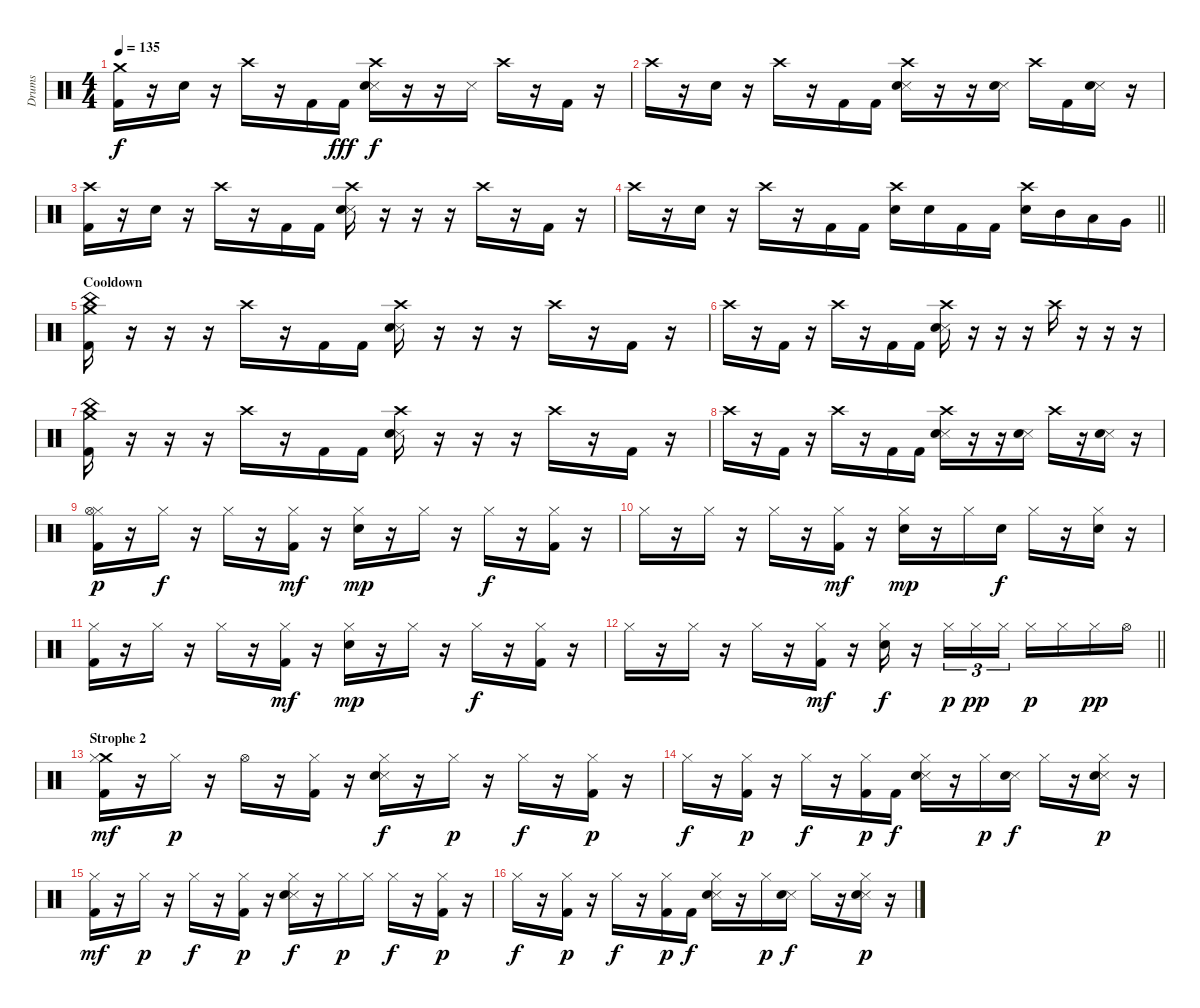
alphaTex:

\track ("Drums" "Drums") {instrument percussion}
\staff {score}
\articulation defaults
\ts (4 4)
\tempo 135
\clef neutral
\ks c
("Crash medium (hit)" "Kick (hit) 2").16{dy f} r.16 "Electric Snare (hit)".16 r.16 "Crash high (hit)".16 r.16 "Kick (hit) 2".16 "Kick (hit) 2".16{dy fff} ("Crash high (hit)" "Snare (side stick) 3" "Electric Snare (hit)").16{dy f} r.16 r.16 "Snare (side stick) 3".16 "Crash high (hit)".16 r.16 "Kick (hit) 2".16 r.16 |
"Crash high (hit)".16 r.16 "Electric Snare (hit)".16 r.16 "Crash high (hit)".16 r.16 "Kick (hit) 2".16 "Kick (hit) 2".16 ("Crash high (hit)" "Snare (side stick) 3" "Electric Snare (hit)").16 r.16 r.16 ("Snare (side stick) 3" "Electric Snare (hit)").16 "Crash high (hit)".16 "Kick (hit) 2".16 ("Snare (side stick) 3" "Electric Snare (hit)").16 r.16 |
("Kick (hit) 2" "Crash high (hit)").16 r.16 "Electric Snare (hit)".16 r.16 "Crash high (hit)".16 r.16 "Kick (hit) 2".16 "Kick (hit) 2".16 ("Snare (side stick) 3" "Electric Snare (hit)" "Crash high (hit)").16 r.16 r.16 r.16 "Crash high (hit)".16 r.16 "Kick (hit) 2".16 r.16 |
\barLineRight lightlight "Crash high (hit)".16
r.16 "Electric Snare (hit)".16 r.16 "Crash high (hit)".16 r.16 "Kick (hit) 2".16 "Kick (hit) 2".16 ("Electric Snare (hit)" "Crash high (hit)").16 "Electric Snare (hit)".16 "Kick (hit) 2".16 "Kick (hit) 2".16 ("Electric Snare (hit)" "Crash high (hit)").16 "Mid Tom (hit)".16 "Low Tom (hit)".16 "Very Low Tom (hit)".16 |
\section ("" "Cooldown")
("Crash medium (hit)" "China (hit)" "Kick (hit) 2").16 r.16 r.16 r.16 "Crash high (hit)".16 r.16 "Kick (hit) 2".16 "Kick (hit) 2".16 ("Crash high (hit)" "Snare (side stick) 3" "Electric Snare (hit)").16 r.16 r.16 r.16 "Crash high (hit)".16 r.16 "Kick (hit) 2".16 r.16 |
"Crash high (hit)".16 r.16 "Kick (hit) 2".16 r.16 "Crash high (hit)".16 r.16 "Kick (hit) 2".16 "Kick (hit) 2".16 ("Crash high (hit)" "Snare (side stick) 3" "Electric Snare (hit)").16 r.16 r.16 r.16 "Crash high (hit)".16 r.16 r.16 r.16 |
("Crash medium (hit)" "China (hit)" "Kick (hit) 2").16 r.16 r.16 r.16 "Crash high (hit)".16 r.16 "Kick (hit) 2".16 "Kick (hit) 2".16 ("Crash high (hit)" "Snare (side stick) 3" "Electric Snare (hit)").16 r.16 r.16 r.16 "Crash high (hit)".16 r.16 "Kick (hit) 2".16 r.16 |
"Crash high (hit)".16 r.16 "Kick (hit) 2".16 r.16 "Crash high (hit)".16 r.16 "Kick (hit) 2".16 "Kick (hit) 2".16 ("Crash high (hit)" "Snare (side stick) 3" "Electric Snare (hit)").16 r.16 r.16 ("Snare (side stick) 3" "Electric Snare (hit)").16 "Crash high (hit)".16 r.16 ("Snare (side stick) 3" "Electric Snare (hit)").16 r.16 |
("Hi-Hat (closed)" "Hi-Hat (open)" "Kick (hit) 2").16{dy p} r.16 "Hi-Hat (closed)".16{dy f} r.16 "Hi-Hat (closed)".16 r.16 ("Hi-Hat (closed)" "Kick (hit) 2").16{dy mf} r.16 ("Hi-Hat (closed)" "Electric Snare (hit)").16{dy mp} r.16 "Hi-Hat (closed)".16 r.16 "Hi-Hat (closed)".16{dy f} r.16 ("Hi-Hat (closed)" "Kick (hit) 2").16 r.16 |
"Hi-Hat (closed)".16 r.16 "Hi-Hat (closed)".16 r.16 "Hi-Hat (closed)".16 r.16 ("Hi-Hat (closed)" "Kick (hit) 2").16{dy mf} r.16 ("Hi-Hat (closed)" "Electric Snare (hit)").16{dy mp} r.16 "Hi-Hat (closed)".16 "Electric Snare (hit)".16{dy f} "Hi-Hat (closed)".16 r.16 ("Hi-Hat (closed)" "Electric Snare (hit)").16 r.16 |
("Hi-Hat (closed)" "Kick (hit) 2").16 r.16 "Hi-Hat (closed)".16 r.16 "Hi-Hat (closed)".16 r.16 ("Hi-Hat (closed)" "Kick (hit) 2").16{dy mf} r.16 ("Hi-Hat (closed)" "Electric Snare (hit)").16{dy mp} r.16 "Hi-Hat (closed)".16 r.16 "Hi-Hat (closed)".16{dy f} r.16 ("Hi-Hat (closed)" "Kick (hit) 2").16 r.16 |
\barLineRight lightlight "Hi-Hat (closed)".16
r.16 "Hi-Hat (closed)".16 r.16 "Hi-Hat (closed)".16 r.16 ("Hi-Hat (closed)" "Kick (hit) 2").16{dy mf} r.16 ("Hi-Hat (closed)" "Electric Snare (hit)").16{dy f} r.16 "Hi-Hat (closed)".16{tu (3 2) dy p} "Hi-Hat (closed)".16{tu (3 2) dy pp} "Hi-Hat (closed)".16{tu (3 2)} "Hi-Hat (closed)".16{dy p} "Hi-Hat (closed)".16 "Hi-Hat (closed)".16{dy pp} "Hi-Hat (open)".16 |
\section ("" "Strophe 2")
("Crash medium (hit)" "Kick (hit) 2" "Hi-Hat (closed)").16{dy mf} r.16 "Hi-Hat (closed)".16{dy p} r.16 "Hi-Hat (open)".16 r.16 ("Kick (hit) 2" "Hi-Hat (closed)").16 r.16 ("Snare (side stick) 3" "Electric Snare (hit)" "Hi-Hat (closed)").16{dy f} r.16 "Hi-Hat (closed)".16{dy p} r.16 "Hi-Hat (closed)".16{dy f} r.16 ("Kick (hit) 2" "Hi-Hat (closed)").16{dy p} r.16 |
"Hi-Hat (closed)".16{dy f} r.16 ("Kick (hit) 2" "Hi-Hat (closed)").16{dy p} r.16 "Hi-Hat (closed)".16{dy f} r.16 ("Kick (hit) 2" "Hi-Hat (closed)").16{dy p} "Kick (hit) 2".16{dy f} ("Snare (side stick) 3" "Electric Snare (hit)" "Hi-Hat (closed)").16 r.16 "Hi-Hat (closed)".16{dy p} ("Snare (side stick) 3" "Electric Snare (hit)").16{dy f} "Hi-Hat (closed)".16 r.16 ("Snare (side stick) 3" "Electric Snare (hit)" "Hi-Hat (closed)").16{dy p} r.16 |
("Kick (hit) 2" "Hi-Hat (closed)").16{dy mf} r.16 "Hi-Hat (closed)".16{dy p} r.16 "Hi-Hat (closed)".16{dy f} r.16 ("Kick (hit) 2" "Hi-Hat (closed)").16{dy p} r.16 ("Snare (side stick) 3" "Electric Snare (hit)" "Hi-Hat (closed)").16{dy f} r.16 "Hi-Hat (closed)".16{dy p} "Hi-Hat (closed)".16 "Hi-Hat (closed)".16{dy f} r.16 ("Kick (hit) 2" "Hi-Hat (closed)").16{dy p} r.16 |
"Hi-Hat (closed)".16{dy f} r.16 ("Kick (hit) 2" "Hi-Hat (closed)").16{dy p} r.16 "Hi-Hat (closed)".16{dy f} r.16 ("Kick (hit) 2" "Hi-Hat (closed)").16{dy p} "Kick (hit) 2".16{dy f} ("Snare (side stick) 3" "Electric Snare (hit)" "Hi-Hat (closed)").16 r.16 "Hi-Hat (closed)".16{dy p} ("Snare (side stick) 3" "Electric Snare (hit)").16{dy f} "Hi-Hat (closed)".16 r.16 ("Snare (side stick) 3" "Electric Snare (hit)" "Hi-Hat (closed)").16{dy p} r.16
